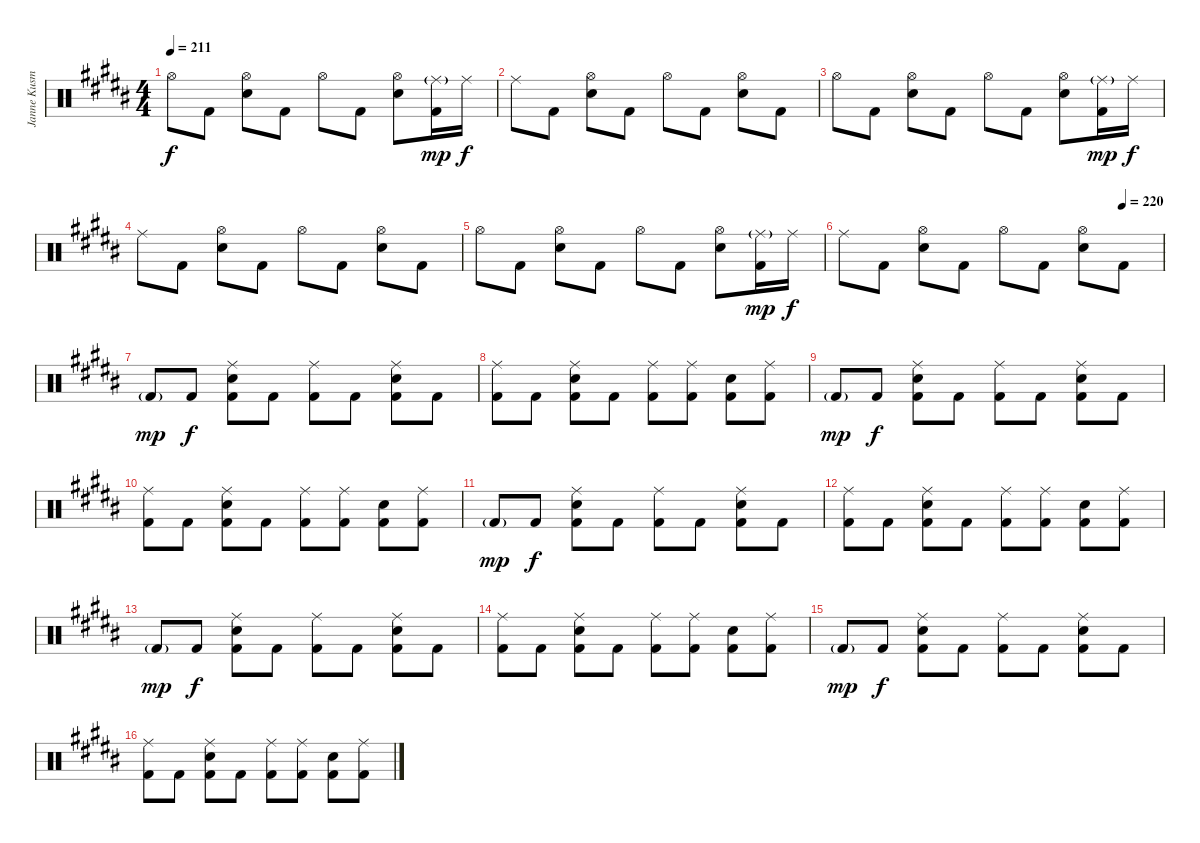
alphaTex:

\track ("Janne Kusmin" "Janne Kusm") {instrument percussion}
\staff {score}
\articulation defaults
\ts (4 4)
\tempo 211
\clef neutral
\ks g#minor "Hi-Hat (open)".8{dy f} "Kick (hit) 2".8
("Hi-Hat (open)" "Electric Snare (hit)").8 "Kick (hit) 2".8 "Hi-Hat (open)".8 "Kick (hit) 2".8 ("Hi-Hat (open)" "Electric Snare (hit)").8 ("Ride (middle)"{g} "Kick (hit) 2").16{dy mp} "Ride (middle)".16{dy f} |
"Ride (middle)".8 "Kick (hit) 2".8 ("Hi-Hat (open)" "Electric Snare (hit)").8 "Kick (hit) 2".8 "Hi-Hat (open)".8 "Kick (hit) 2".8 ("Hi-Hat (open)" "Electric Snare (hit)").8 "Kick (hit) 2".8 |
"Hi-Hat (open)".8 "Kick (hit) 2".8 ("Hi-Hat (open)" "Electric Snare (hit)").8 "Kick (hit) 2".8 "Hi-Hat (open)".8 "Kick (hit) 2".8 ("Hi-Hat (open)" "Electric Snare (hit)").8 ("Ride (middle)"{g} "Kick (hit) 2").16{dy mp} "Ride (middle)".16{dy f} |
"Ride (middle)".8 "Kick (hit) 2".8 ("Hi-Hat (open)" "Electric Snare (hit)").8 "Kick (hit) 2".8 "Hi-Hat (open)".8 "Kick (hit) 2".8 ("Hi-Hat (open)" "Electric Snare (hit)").8 "Kick (hit) 2".8 |
"Hi-Hat (open)".8 "Kick (hit) 2".8 ("Hi-Hat (open)" "Electric Snare (hit)").8 "Kick (hit) 2".8 "Hi-Hat (open)".8 "Kick (hit) 2".8 ("Hi-Hat (open)" "Electric Snare (hit)").8 ("Ride (middle)"{g} "Kick (hit) 2").16{dy mp} "Ride (middle)".16{dy f} |
\tempo (220 0.875)
"Ride (middle)".8 "Kick (hit) 2".8 ("Hi-Hat (open)" "Electric Snare (hit)").8 "Kick (hit) 2".8 "Hi-Hat (open)".8 "Kick (hit) 2".8 ("Hi-Hat (open)" "Electric Snare (hit)").8 "Kick (hit) 2".8 |
"Kick (hit) 2"{g}.8{dy mp} "Kick (hit) 2".8{dy f} ("Ride (middle)" "Electric Snare (hit)" "Kick (hit) 2").8 "Kick (hit) 2".8 ("Ride (middle)" "Kick (hit) 2").8 "Kick (hit) 2".8 ("Ride (middle)" "Electric Snare (hit)" "Kick (hit) 2").8 "Kick (hit) 2".8 |
\ks b
("Ride (middle)" "Kick (hit) 2").8 "Kick (hit) 2".8 ("Ride (middle)" "Electric Snare (hit)" "Kick (hit) 2").8 "Kick (hit) 2".8 ("Ride (middle)" "Kick (hit) 2").8 ("Ride (middle)" "Kick (hit) 2").8 ("Electric Snare (hit)" "Kick (hit) 2").8 ("Ride (middle)" "Kick (hit) 2").8 |
\ks g#minor "Kick (hit) 2"{g}.8{dy mp} "Kick (hit) 2".8{dy f}
("Ride (middle)" "Electric Snare (hit)" "Kick (hit) 2").8 "Kick (hit) 2".8 ("Ride (middle)" "Kick (hit) 2").8 "Kick (hit) 2".8 ("Ride (middle)" "Electric Snare (hit)" "Kick (hit) 2").8 "Kick (hit) 2".8 |
\ks b
("Ride (middle)" "Kick (hit) 2").8 "Kick (hit) 2".8 ("Ride (middle)" "Electric Snare (hit)" "Kick (hit) 2").8 "Kick (hit) 2".8 ("Ride (middle)" "Kick (hit) 2").8 ("Ride (middle)" "Kick (hit) 2").8 ("Electric Snare (hit)" "Kick (hit) 2").8 ("Ride (middle)" "Kick (hit) 2").8 |
\ks g#minor "Kick (hit) 2"{g}.8{dy mp} "Kick (hit) 2".8{dy f}
("Ride (middle)" "Electric Snare (hit)" "Kick (hit) 2").8 "Kick (hit) 2".8 ("Ride (middle)" "Kick (hit) 2").8 "Kick (hit) 2".8 ("Ride (middle)" "Electric Snare (hit)" "Kick (hit) 2").8 "Kick (hit) 2".8 |
\ks b
("Ride (middle)" "Kick (hit) 2").8 "Kick (hit) 2".8 ("Ride (middle)" "Electric Snare (hit)" "Kick (hit) 2").8 "Kick (hit) 2".8 ("Ride (middle)" "Kick (hit) 2").8 ("Ride (middle)" "Kick (hit) 2").8 ("Electric Snare (hit)" "Kick (hit) 2").8 ("Ride (middle)" "Kick (hit) 2").8 |
\ks g#minor "Kick (hit) 2"{g}.8{dy mp} "Kick (hit) 2".8{dy f}
("Ride (middle)" "Electric Snare (hit)" "Kick (hit) 2").8 "Kick (hit) 2".8 ("Ride (middle)" "Kick (hit) 2").8 "Kick (hit) 2".8 ("Ride (middle)" "Electric Snare (hit)" "Kick (hit) 2").8 "Kick (hit) 2".8 |
("Ride (middle)" "Kick (hit) 2").8 "Kick (hit) 2".8 ("Ride (middle)" "Electric Snare (hit)" "Kick (hit) 2").8 "Kick (hit) 2".8 ("Ride (middle)" "Kick (hit) 2").8 ("Ride (middle)" "Kick (hit) 2").8 ("Electric Snare (hit)" "Kick (hit) 2").8 ("Ride (middle)" "Kick (hit) 2").8 |
"Kick (hit) 2"{g}.8{dy mp} "Kick (hit) 2".8{dy f} ("Ride (middle)" "Electric Snare (hit)" "Kick (hit) 2").8 "Kick (hit) 2".8 ("Ride (middle)" "Kick (hit) 2").8 "Kick (hit) 2".8 ("Ride (middle)" "Electric Snare (hit)" "Kick (hit) 2").8 "Kick (hit) 2".8 |
\ks b
("Ride (middle)" "Kick (hit) 2").8 "Kick (hit) 2".8 ("Ride (middle)" "Electric Snare (hit)" "Kick (hit) 2").8 "Kick (hit) 2".8 ("Ride (middle)" "Kick (hit) 2").8 ("Ride (middle)" "Kick (hit) 2").8 ("Electric Snare (hit)" "Kick (hit) 2").8 ("Ride (middle)" "Kick (hit) 2").8
